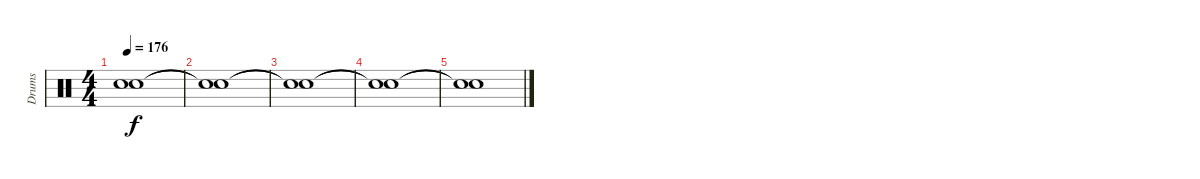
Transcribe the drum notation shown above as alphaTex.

\track ("Drums" "Drums") {instrument percussion}
\staff {score}
\articulation defaults
\ts (4 4)
\tempo 176
\clef neutral
\ks c
("Snare (hit)"{t} "Snare (hit)"{t}).1{dy f} |
("Snare (hit)"{t} "Snare (hit)"{t}).1 |
("Snare (hit)"{t} "Snare (hit)"{t}).1 |
("Snare (hit)"{t} "Snare (hit)"{t}).1 |
("Snare (hit)"{t} "Snare (hit)"{t}).1
